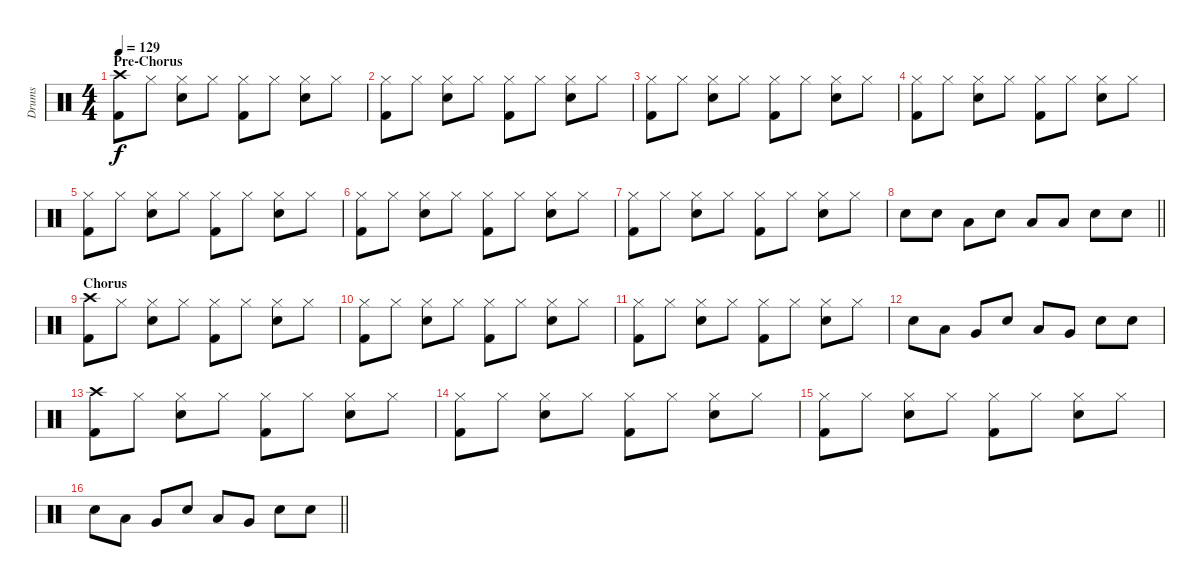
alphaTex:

\track ("Drums" "Drums") {instrument percussion}
\staff {score}
\articulation defaults
\ts (4 4)
\section ("" "Pre-Chorus")
\tempo 129
\clef neutral
\ks c
("Crash high (hit)" "Kick (hit) 2").8{dy f} "Hi-Hat (closed)".8 ("Hi-Hat (closed)" "Snare (hit) 2").8 "Hi-Hat (closed)".8 ("Hi-Hat (closed)" "Kick (hit) 2").8 "Hi-Hat (closed)".8 ("Hi-Hat (closed)" "Snare (hit) 2").8 "Hi-Hat (closed)".8 |
("Hi-Hat (closed)" "Kick (hit) 2").8 "Hi-Hat (closed)".8 ("Hi-Hat (closed)" "Snare (hit) 2").8 "Hi-Hat (closed)".8 ("Hi-Hat (closed)" "Kick (hit) 2").8 "Hi-Hat (closed)".8 ("Hi-Hat (closed)" "Snare (hit) 2").8 "Hi-Hat (closed)".8 |
("Hi-Hat (closed)" "Kick (hit) 2").8 "Hi-Hat (closed)".8 ("Hi-Hat (closed)" "Snare (hit) 2").8 "Hi-Hat (closed)".8 ("Hi-Hat (closed)" "Kick (hit) 2").8 "Hi-Hat (closed)".8 ("Hi-Hat (closed)" "Snare (hit) 2").8 "Hi-Hat (closed)".8 |
("Hi-Hat (closed)" "Kick (hit) 2").8 "Hi-Hat (closed)".8 ("Hi-Hat (closed)" "Snare (hit) 2").8 "Hi-Hat (closed)".8 ("Hi-Hat (closed)" "Kick (hit) 2").8 "Hi-Hat (closed)".8 ("Hi-Hat (closed)" "Snare (hit) 2").8 "Hi-Hat (closed)".8 |
("Hi-Hat (closed)" "Kick (hit) 2").8 "Hi-Hat (closed)".8 ("Hi-Hat (closed)" "Snare (hit) 2").8 "Hi-Hat (closed)".8 ("Hi-Hat (closed)" "Kick (hit) 2").8 "Hi-Hat (closed)".8 ("Hi-Hat (closed)" "Snare (hit) 2").8 "Hi-Hat (closed)".8 |
("Hi-Hat (closed)" "Kick (hit) 2").8 "Hi-Hat (closed)".8 ("Hi-Hat (closed)" "Snare (hit) 2").8 "Hi-Hat (closed)".8 ("Hi-Hat (closed)" "Kick (hit) 2").8 "Hi-Hat (closed)".8 ("Hi-Hat (closed)" "Snare (hit) 2").8 "Hi-Hat (closed)".8 |
("Hi-Hat (closed)" "Kick (hit) 2").8 "Hi-Hat (closed)".8 ("Hi-Hat (closed)" "Snare (hit) 2").8 "Hi-Hat (closed)".8 ("Hi-Hat (closed)" "Kick (hit) 2").8 "Hi-Hat (closed)".8 ("Hi-Hat (closed)" "Snare (hit) 2").8 "Hi-Hat (closed)".8 |
\barLineRight lightlight "Snare (hit) 2".8 "Snare (hit) 2".8 "Low Tom (hit)".8 "Snare (hit) 2".8 "Low Tom (hit)".8 "Low Tom (hit)".8 "Snare (hit) 2".8 "Snare (hit) 2".8
|
\section ("" "Chorus")
("Crash high (hit)" "Kick (hit) 2").8 "Hi-Hat (closed)".8 ("Hi-Hat (closed)" "Snare (hit) 2").8 "Hi-Hat (closed)".8 ("Hi-Hat (closed)" "Kick (hit) 2").8 "Hi-Hat (closed)".8 ("Hi-Hat (closed)" "Snare (hit) 2").8 "Hi-Hat (closed)".8 |
("Hi-Hat (closed)" "Kick (hit) 2").8 "Hi-Hat (closed)".8 ("Hi-Hat (closed)" "Snare (hit) 2").8 "Hi-Hat (closed)".8 ("Hi-Hat (closed)" "Kick (hit) 2").8 "Hi-Hat (closed)".8 ("Hi-Hat (closed)" "Snare (hit) 2").8 "Hi-Hat (closed)".8 |
("Hi-Hat (closed)" "Kick (hit) 2").8 "Hi-Hat (closed)".8 ("Hi-Hat (closed)" "Snare (hit) 2").8 "Hi-Hat (closed)".8 ("Hi-Hat (closed)" "Kick (hit) 2").8 "Hi-Hat (closed)".8 ("Hi-Hat (closed)" "Snare (hit) 2").8 "Hi-Hat (closed)".8 |
"Snare (hit) 2".8 "Low Tom (hit)".8 "Very Low Tom (hit)".8 "Snare (hit) 2".8 "Low Tom (hit)".8 "Very Low Tom (hit)".8 "Snare (hit) 2".8 "Snare (hit) 2".8 |
("Crash high (hit)" "Kick (hit) 2").8 "Hi-Hat (closed)".8 ("Hi-Hat (closed)" "Snare (hit) 2").8 "Hi-Hat (closed)".8 ("Hi-Hat (closed)" "Kick (hit) 2").8 "Hi-Hat (closed)".8 ("Hi-Hat (closed)" "Snare (hit) 2").8 "Hi-Hat (closed)".8 |
("Hi-Hat (closed)" "Kick (hit) 2").8 "Hi-Hat (closed)".8 ("Hi-Hat (closed)" "Snare (hit) 2").8 "Hi-Hat (closed)".8 ("Hi-Hat (closed)" "Kick (hit) 2").8 "Hi-Hat (closed)".8 ("Hi-Hat (closed)" "Snare (hit) 2").8 "Hi-Hat (closed)".8 |
("Hi-Hat (closed)" "Kick (hit) 2").8 "Hi-Hat (closed)".8 ("Hi-Hat (closed)" "Snare (hit) 2").8 "Hi-Hat (closed)".8 ("Hi-Hat (closed)" "Kick (hit) 2").8 "Hi-Hat (closed)".8 ("Hi-Hat (closed)" "Snare (hit) 2").8 "Hi-Hat (closed)".8 |
\barLineRight lightlight "Snare (hit) 2".8 "Low Tom (hit)".8 "Very Low Tom (hit)".8 "Snare (hit) 2".8 "Low Tom (hit)".8 "Very Low Tom (hit)".8 "Snare (hit) 2".8 "Snare (hit) 2".8
